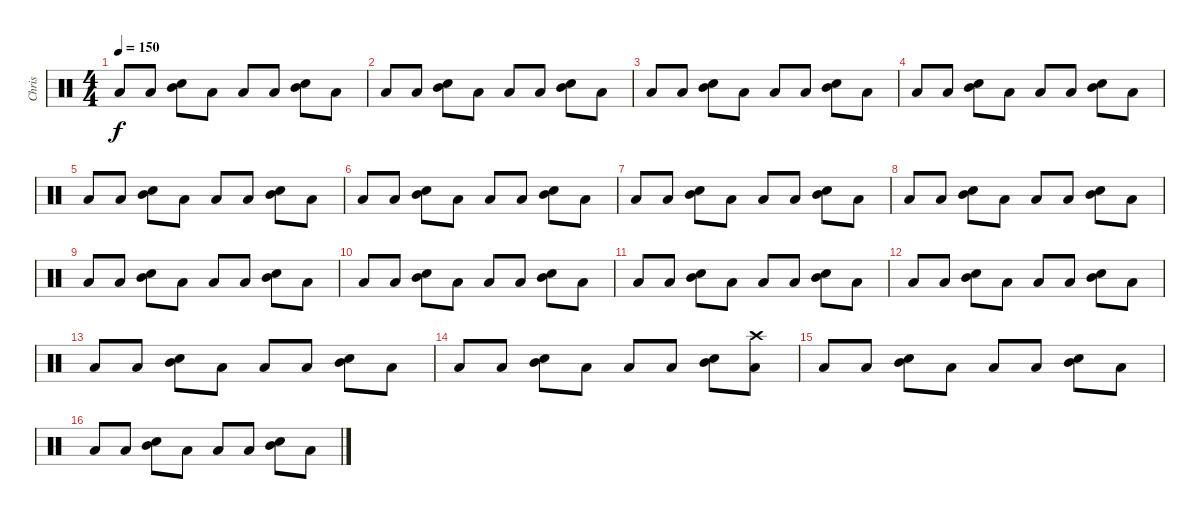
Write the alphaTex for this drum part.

\track ("Chris" "Chris") {instrument percussion}
\staff {score}
\articulation defaults
\ts (4 4)
\tempo 150
\clef neutral
\ks c "Low Tom (hit)".8{dy f} "Low Tom (hit)".8
("Mid Tom (hit)" "Snare (hit) 2").8 "Low Tom (hit)".8 "Low Tom (hit)".8 "Low Tom (hit)".8 ("Mid Tom (hit)" "Snare (hit) 2").8 "Low Tom (hit)".8 |
"Low Tom (hit)".8 "Low Tom (hit)".8 ("Mid Tom (hit)" "Snare (hit) 2").8 "Low Tom (hit)".8 "Low Tom (hit)".8 "Low Tom (hit)".8 ("Mid Tom (hit)" "Snare (hit) 2").8 "Low Tom (hit)".8 |
"Low Tom (hit)".8 "Low Tom (hit)".8 ("Mid Tom (hit)" "Snare (hit) 2").8 "Low Tom (hit)".8 "Low Tom (hit)".8 "Low Tom (hit)".8 ("Mid Tom (hit)" "Snare (hit) 2").8 "Low Tom (hit)".8 |
"Low Tom (hit)".8 "Low Tom (hit)".8 ("Mid Tom (hit)" "Snare (hit) 2").8 "Low Tom (hit)".8 "Low Tom (hit)".8 "Low Tom (hit)".8 ("Mid Tom (hit)" "Snare (hit) 2").8 "Low Tom (hit)".8 |
"Low Tom (hit)".8 "Low Tom (hit)".8 ("Mid Tom (hit)" "Snare (hit) 2").8 "Low Tom (hit)".8 "Low Tom (hit)".8 "Low Tom (hit)".8 ("Mid Tom (hit)" "Snare (hit) 2").8 "Low Tom (hit)".8 |
"Low Tom (hit)".8 "Low Tom (hit)".8 ("Mid Tom (hit)" "Snare (hit) 2").8 "Low Tom (hit)".8 "Low Tom (hit)".8 "Low Tom (hit)".8 ("Mid Tom (hit)" "Snare (hit) 2").8 "Low Tom (hit)".8 |
"Low Tom (hit)".8 "Low Tom (hit)".8 ("Mid Tom (hit)" "Snare (hit) 2").8 "Low Tom (hit)".8 "Low Tom (hit)".8 "Low Tom (hit)".8 ("Mid Tom (hit)" "Snare (hit) 2").8 "Low Tom (hit)".8 |
"Low Tom (hit)".8 "Low Tom (hit)".8 ("Mid Tom (hit)" "Snare (hit) 2").8 "Low Tom (hit)".8 "Low Tom (hit)".8 "Low Tom (hit)".8 ("Mid Tom (hit)" "Snare (hit) 2").8 "Low Tom (hit)".8 |
"Low Tom (hit)".8 "Low Tom (hit)".8 ("Mid Tom (hit)" "Snare (hit) 2").8 "Low Tom (hit)".8 "Low Tom (hit)".8 "Low Tom (hit)".8 ("Mid Tom (hit)" "Snare (hit) 2").8 "Low Tom (hit)".8 |
"Low Tom (hit)".8 "Low Tom (hit)".8 ("Mid Tom (hit)" "Snare (hit) 2").8 "Low Tom (hit)".8 "Low Tom (hit)".8 "Low Tom (hit)".8 ("Mid Tom (hit)" "Snare (hit) 2").8 "Low Tom (hit)".8 |
"Low Tom (hit)".8 "Low Tom (hit)".8 ("Mid Tom (hit)" "Snare (hit) 2").8 "Low Tom (hit)".8 "Low Tom (hit)".8 "Low Tom (hit)".8 ("Mid Tom (hit)" "Snare (hit) 2").8 "Low Tom (hit)".8 |
"Low Tom (hit)".8 "Low Tom (hit)".8 ("Mid Tom (hit)" "Snare (hit) 2").8 "Low Tom (hit)".8 "Low Tom (hit)".8 "Low Tom (hit)".8 ("Mid Tom (hit)" "Snare (hit) 2").8 "Low Tom (hit)".8 |
"Low Tom (hit)".8 "Low Tom (hit)".8 ("Mid Tom (hit)" "Snare (hit) 2").8 "Low Tom (hit)".8 "Low Tom (hit)".8 "Low Tom (hit)".8 ("Mid Tom (hit)" "Snare (hit) 2").8 "Low Tom (hit)".8 |
"Low Tom (hit)".8 "Low Tom (hit)".8 ("Mid Tom (hit)" "Snare (hit) 2").8 "Low Tom (hit)".8 "Low Tom (hit)".8 "Low Tom (hit)".8 ("Mid Tom (hit)" "Snare (hit) 2").8 ("Low Tom (hit)" "Crash high (hit)").8 |
"Low Tom (hit)".8 "Low Tom (hit)".8 ("Mid Tom (hit)" "Snare (hit) 2").8 "Low Tom (hit)".8 "Low Tom (hit)".8 "Low Tom (hit)".8 ("Mid Tom (hit)" "Snare (hit) 2").8 "Low Tom (hit)".8 |
"Low Tom (hit)".8 "Low Tom (hit)".8 ("Mid Tom (hit)" "Snare (hit) 2").8 "Low Tom (hit)".8 "Low Tom (hit)".8 "Low Tom (hit)".8 ("Mid Tom (hit)" "Snare (hit) 2").8 "Low Tom (hit)".8
